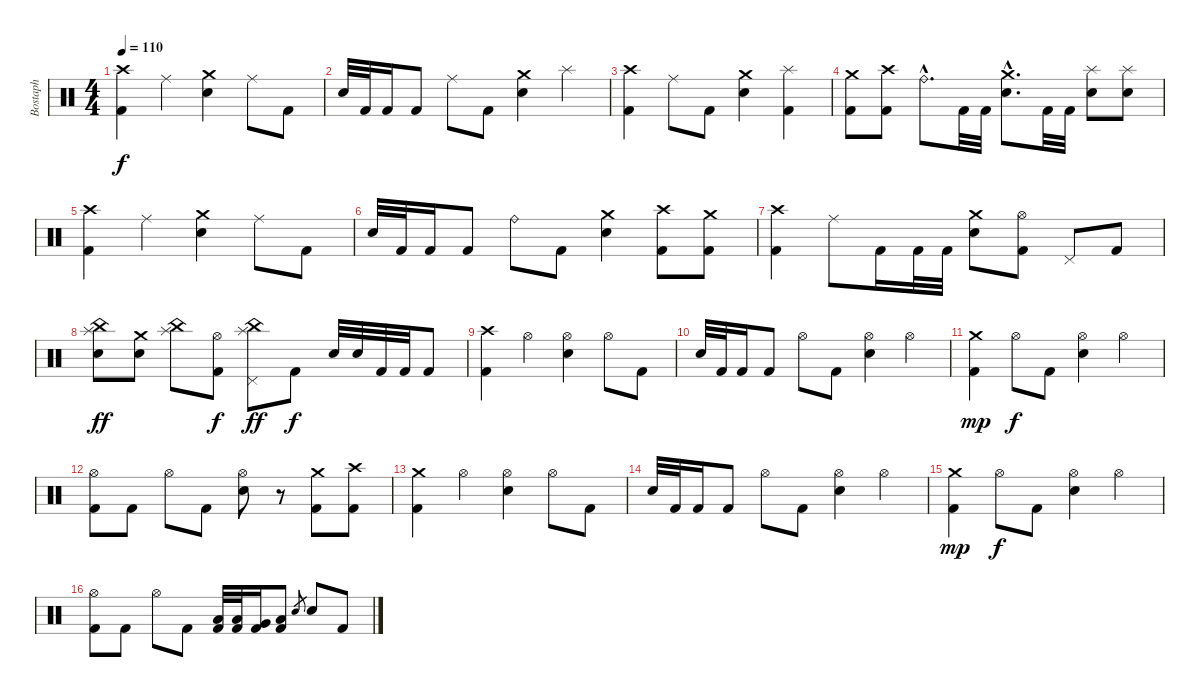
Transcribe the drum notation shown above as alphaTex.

\track ("Bostaph" "Bostaph") {instrument percussion}
\staff {score}
\articulation defaults
\ts (4 4)
\tempo 110
\clef neutral
\ks c
("Crash high (hit)" "Kick (hit) 2").4{dy f} "Ride (middle)".4 ("Crash medium (hit)" "Electric Snare (hit)").4 "Ride (middle)".8 "Kick (hit) 2".8 |
"Electric Snare (hit)".32 "Kick (hit) 2".32 "Kick (hit) 2".16 "Kick (hit) 2".8 "Ride (middle)".8 "Kick (hit) 2".8 ("Crash medium (hit)" "Electric Snare (hit)").4 "Splash (hit)".4 |
("Crash high (hit)" "Kick (hit) 2").4 "Ride (middle)".8 "Kick (hit) 2".8 ("Crash medium (hit)" "Electric Snare (hit)").4 ("Splash (hit)" "Kick (hit) 2").4 |
("Crash medium (hit)" "Kick (hit) 2").8 ("Crash high (hit)" "Kick (hit) 2").8 "Ride (bell)"{hac}.8{d} "Kick (hit) 2".32 "Kick (hit) 2".32 ("Crash medium (hit)"{hac} "Electric Snare (hit)"{hac}).8{d} "Kick (hit) 2".32 "Kick (hit) 2".32 ("Splash (hit)" "Electric Snare (hit)").8 ("Splash (hit)" "Electric Snare (hit)").8 |
("Crash high (hit)" "Kick (hit) 2").4 "Ride (middle)".4 ("Crash medium (hit)" "Electric Snare (hit)").4 "Ride (middle)".8 "Kick (hit) 2".8 |
"Electric Snare (hit)".32 "Kick (hit) 2".32 "Kick (hit) 2".16 "Kick (hit) 2".8 "Ride (bell)".8 "Kick (hit) 2".8 ("Crash medium (hit)" "Electric Snare (hit)").4 ("Crash high (hit)" "Kick (hit) 2").8 ("Crash medium (hit)" "Kick (hit) 2").8 |
("Crash high (hit)" "Kick (hit) 2").4 "Ride (middle)".8 "Kick (hit) 2".16 "Kick (hit) 2".32 "Kick (hit) 2".32 ("Crash medium (hit)" "Electric Snare (hit)").8 ("Hi-Hat (open)" "Kick (hit) 2").8 "Pedal Hi-Hat (hit)".8 "Kick (hit) 2".8 |
("China (hit)" "Splash (hit)" "Electric Snare (hit)").8{dy ff} ("Crash medium (hit)" "Electric Snare (hit)").8 ("China (hit)" "Splash (hit)").8 ("Kick (hit) 2" "Hi-Hat (open)").8{dy f} ("China (hit)" "Splash (hit)" "Pedal Hi-Hat (hit)").8{dy ff} "Kick (hit) 2".8{dy f} "Electric Snare (hit)".32 "Electric Snare (hit)".32 "Kick (hit) 2".32 "Kick (hit) 2".32 "Kick (hit) 2".8 |
("Crash high (hit)" "Kick (hit) 2").4 "Hi-Hat (open)".4 ("Electric Snare (hit)" "Hi-Hat (open)").4 "Hi-Hat (open)".8 "Kick (hit) 2".8 |
"Electric Snare (hit)".32 "Kick (hit) 2".32 "Kick (hit) 2".16 "Kick (hit) 2".8 "Hi-Hat (open)".8 "Kick (hit) 2".8 ("Electric Snare (hit)" "Hi-Hat (open)").4 "Hi-Hat (open)".4 |
("Kick (hit) 2" "Crash medium (hit)").4{dy mp} "Hi-Hat (open)".8{dy f} "Kick (hit) 2".8 ("Electric Snare (hit)" "Hi-Hat (open)").4 "Hi-Hat (open)".4 |
("Hi-Hat (open)" "Kick (hit) 2").8 "Kick (hit) 2".8 "Hi-Hat (open)".8 "Kick (hit) 2".8 ("Hi-Hat (open)" "Electric Snare (hit)").8 r.8 ("Crash medium (hit)" "Kick (hit) 2").8 ("Crash high (hit)" "Kick (hit) 2").8 |
("Crash medium (hit)" "Kick (hit) 2").4 "Hi-Hat (open)".4 ("Electric Snare (hit)" "Hi-Hat (open)").4 "Hi-Hat (open)".8 "Kick (hit) 2".8 |
"Electric Snare (hit)".32 "Kick (hit) 2".32 "Kick (hit) 2".16 "Kick (hit) 2".8 "Hi-Hat (open)".8 "Kick (hit) 2".8 ("Electric Snare (hit)" "Hi-Hat (open)").4 "Hi-Hat (open)".4 |
("Kick (hit) 2" "Crash medium (hit)").4{dy mp} "Hi-Hat (open)".8{dy f} "Kick (hit) 2".8 ("Electric Snare (hit)" "Hi-Hat (open)").4 "Hi-Hat (open)".4 |
("Hi-Hat (open)" "Kick (hit) 2").8 "Kick (hit) 2".8 "Hi-Hat (open)".8 "Kick (hit) 2".8 ("Kick (hit) 2" "Low Tom (hit)").32 ("Kick (hit) 2" "Low Tom (hit)").32 ("Kick (hit) 2" "Very Low Tom (hit)").16 ("Kick (hit) 2" "Low Floor Tom (hit)").8 "Electric Snare (hit)".8{gr} "Electric Snare (hit)".8 "Kick (hit) 2".8
